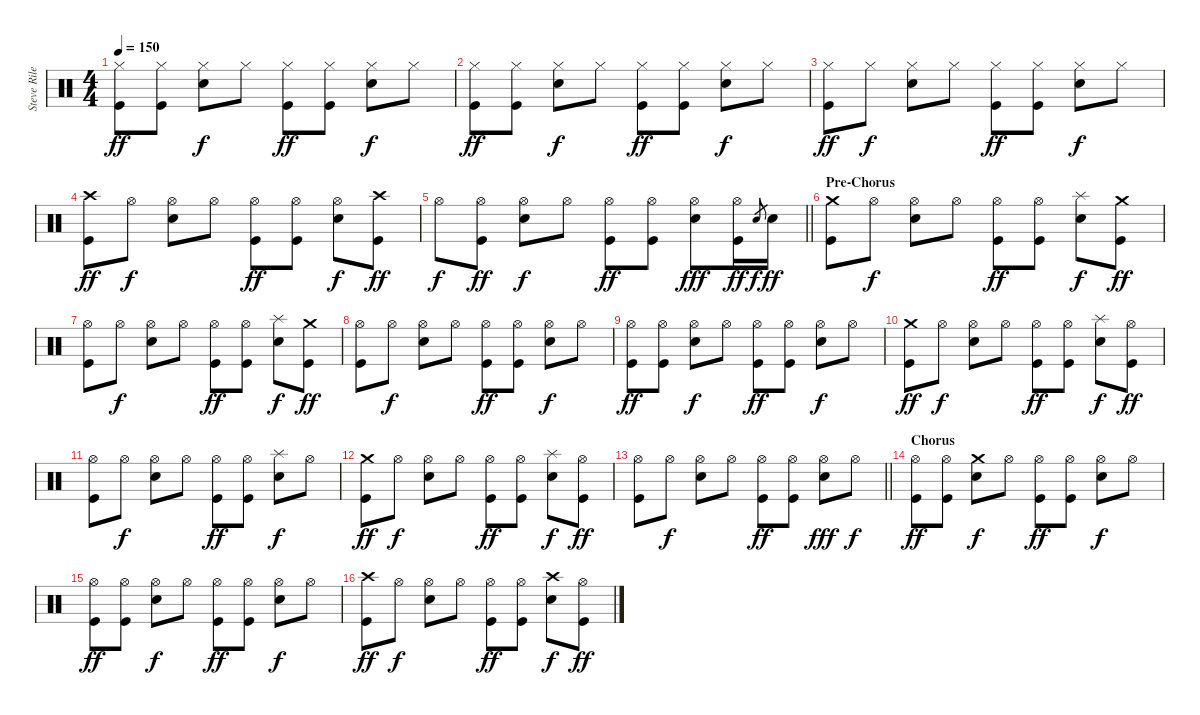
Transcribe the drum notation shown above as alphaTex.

\track ("Steve Riley" "Steve Rile") {instrument percussion}
\staff {score}
\articulation defaults
\ts (4 4)
\tempo 150
\clef neutral
\ks c
("Hi-Hat (closed)" "Kick (hit)").8{dy ff} ("Hi-Hat (closed)" "Kick (hit)").8 ("Hi-Hat (closed)" "Snare (hit) 2").8{dy f} "Hi-Hat (closed)".8 ("Hi-Hat (closed)" "Kick (hit)").8{dy ff} ("Hi-Hat (closed)" "Kick (hit)").8 ("Hi-Hat (closed)" "Snare (hit) 2").8{dy f} "Hi-Hat (closed)".8 |
("Hi-Hat (closed)" "Kick (hit)").8{dy ff} ("Hi-Hat (closed)" "Kick (hit)").8 ("Hi-Hat (closed)" "Snare (hit) 2").8{dy f} "Hi-Hat (closed)".8 ("Hi-Hat (closed)" "Kick (hit)").8{dy ff} ("Hi-Hat (closed)" "Kick (hit)").8 ("Hi-Hat (closed)" "Snare (hit) 2").8{dy f} "Hi-Hat (closed)".8 |
("Hi-Hat (closed)" "Kick (hit)").8{dy ff} "Hi-Hat (closed)".8{dy f} ("Hi-Hat (closed)" "Snare (hit) 2").8 "Hi-Hat (closed)".8 ("Hi-Hat (closed)" "Kick (hit)").8{dy ff} ("Hi-Hat (closed)" "Kick (hit)").8 ("Hi-Hat (closed)" "Snare (hit) 2").8{dy f} "Hi-Hat (closed)".8 |
("Crash high (hit)" "Kick (hit)").8{dy ff} "Hi-Hat (open)".8{dy f} ("Hi-Hat (open)" "Snare (hit) 2").8 "Hi-Hat (open)".8 ("Hi-Hat (open)" "Kick (hit)").8{dy ff} ("Hi-Hat (open)" "Kick (hit)").8 ("Hi-Hat (open)" "Snare (hit) 2").8{dy f} ("Crash high (hit)" "Kick (hit)").8{dy ff} |
\barLineRight lightlight "Hi-Hat (open)".8{dy f}
("Hi-Hat (open)" "Kick (hit)").8{dy ff} ("Hi-Hat (open)" "Snare (hit) 2").8{dy f} "Hi-Hat (open)".8 ("Hi-Hat (open)" "Kick (hit)").8{dy ff} ("Hi-Hat (open)" "Kick (hit)").8 ("Hi-Hat (open)" "Snare (hit) 2").8{dy fff} ("Hi-Hat (open)" "Kick (hit)").16{dy ff} "Snare (hit) 2".8{gr dy f} "Snare (hit) 2".16{dy ff} |
\section ("" "Pre-Chorus")
("Crash medium (hit)" "Kick (hit)").8 "Hi-Hat (open)".8{dy f} ("Hi-Hat (open)" "Snare (hit) 2").8 "Hi-Hat (open)".8 ("Hi-Hat (open)" "Kick (hit)").8{dy ff} ("Hi-Hat (open)" "Kick (hit)").8 ("Splash (hit)" "Snare (hit) 2").8{dy f} ("Crash medium (hit)" "Kick (hit)").8{dy ff} |
("Hi-Hat (open)" "Kick (hit)").8 "Hi-Hat (open)".8{dy f} ("Hi-Hat (open)" "Snare (hit) 2").8 "Hi-Hat (open)".8 ("Hi-Hat (open)" "Kick (hit)").8{dy ff} ("Hi-Hat (open)" "Kick (hit)").8 ("Splash (hit)" "Snare (hit) 2").8{dy f} ("Crash medium (hit)" "Kick (hit)").8{dy ff} |
("Hi-Hat (open)" "Kick (hit)").8 "Hi-Hat (open)".8{dy f} ("Hi-Hat (open)" "Snare (hit) 2").8 "Hi-Hat (open)".8 ("Hi-Hat (open)" "Kick (hit)").8{dy ff} ("Hi-Hat (open)" "Kick (hit)").8 ("Hi-Hat (open)" "Snare (hit) 2").8{dy f} "Hi-Hat (open)".8 |
("Hi-Hat (open)" "Kick (hit)").8{dy ff} ("Hi-Hat (open)" "Kick (hit)").8 ("Hi-Hat (open)" "Snare (hit) 2").8{dy f} "Hi-Hat (open)".8 ("Hi-Hat (open)" "Kick (hit)").8{dy ff} ("Hi-Hat (open)" "Kick (hit)").8 ("Hi-Hat (open)" "Snare (hit) 2").8{dy f} "Hi-Hat (open)".8 |
("Crash medium (hit)" "Kick (hit)").8{dy ff} "Hi-Hat (open)".8{dy f} ("Hi-Hat (open)" "Snare (hit) 2").8 "Hi-Hat (open)".8 ("Hi-Hat (open)" "Kick (hit)").8{dy ff} ("Hi-Hat (open)" "Kick (hit)").8 ("Splash (hit)" "Snare (hit) 2").8{dy f} ("Hi-Hat (open)" "Kick (hit)").8{dy ff} |
("Hi-Hat (open)" "Kick (hit)").8 "Hi-Hat (open)".8{dy f} ("Hi-Hat (open)" "Snare (hit) 2").8 "Hi-Hat (open)".8 ("Hi-Hat (open)" "Kick (hit)").8{dy ff} ("Hi-Hat (open)" "Kick (hit)").8 ("Splash (hit)" "Snare (hit) 2").8{dy f} "Hi-Hat (open)".8 |
("Crash medium (hit)" "Kick (hit)").8{dy ff} "Hi-Hat (open)".8{dy f} ("Hi-Hat (open)" "Snare (hit) 2").8 "Hi-Hat (open)".8 ("Hi-Hat (open)" "Kick (hit)").8{dy ff} ("Hi-Hat (open)" "Kick (hit)").8 ("Splash (hit)" "Snare (hit) 2").8{dy f} ("Hi-Hat (open)" "Kick (hit)").8{dy ff} |
\barLineRight lightlight
("Hi-Hat (open)" "Kick (hit)").8 "Hi-Hat (open)".8{dy f} ("Hi-Hat (open)" "Snare (hit) 2").8 "Hi-Hat (open)".8 ("Hi-Hat (open)" "Kick (hit)").8{dy ff} ("Hi-Hat (open)" "Kick (hit)").8 ("Hi-Hat (open)" "Snare (hit) 2").8{dy fff} "Hi-Hat (open)".8{dy f} |
\section ("" "Chorus")
("Hi-Hat (open)" "Kick (hit)").8{dy ff} ("Hi-Hat (open)" "Kick (hit)").8 ("Crash medium (hit)" "Snare (hit) 2").8{dy f} "Hi-Hat (open)".8 ("Hi-Hat (open)" "Kick (hit)").8{dy ff} ("Hi-Hat (open)" "Kick (hit)").8 ("Hi-Hat (open)" "Snare (hit) 2").8{dy f} "Hi-Hat (open)".8 |
("Hi-Hat (open)" "Kick (hit)").8{dy ff} ("Hi-Hat (open)" "Kick (hit)").8 ("Hi-Hat (open)" "Snare (hit) 2").8{dy f} "Hi-Hat (open)".8 ("Hi-Hat (open)" "Kick (hit)").8{dy ff} ("Hi-Hat (open)" "Kick (hit)").8 ("Hi-Hat (open)" "Snare (hit) 2").8{dy f} "Hi-Hat (open)".8 |
("Crash high (hit)" "Kick (hit)").8{dy ff} "Hi-Hat (open)".8{dy f} ("Hi-Hat (open)" "Snare (hit) 2").8 "Hi-Hat (open)".8 ("Hi-Hat (open)" "Kick (hit)").8{dy ff} ("Hi-Hat (open)" "Kick (hit)").8 ("Crash high (hit)" "Snare (hit) 2").8{dy f} ("Hi-Hat (open)" "Kick (hit)").8{dy ff}
